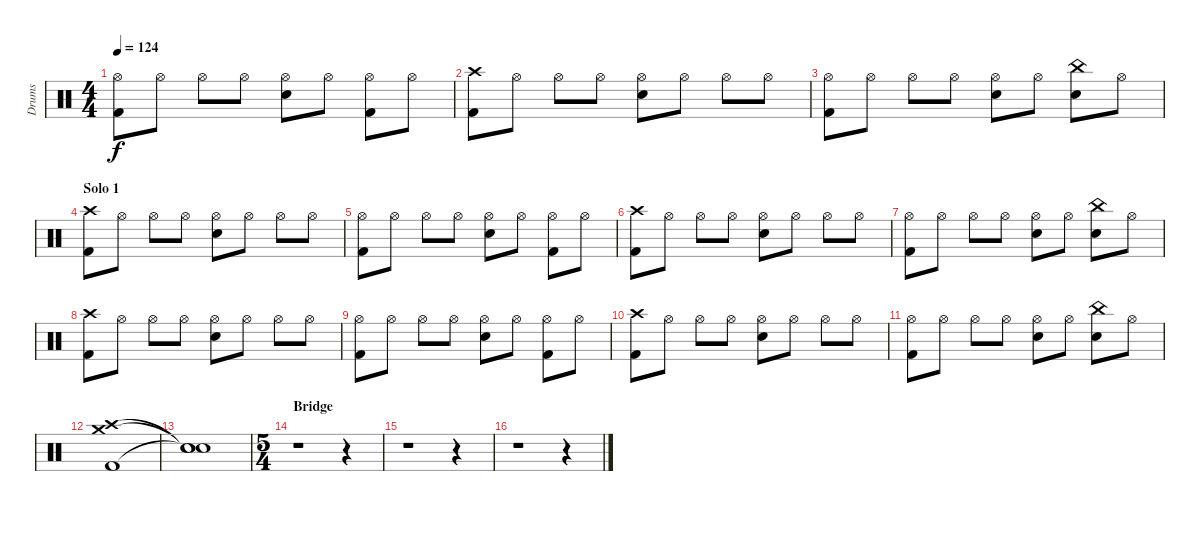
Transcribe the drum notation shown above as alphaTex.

\track ("Drums" "Drums") {instrument percussion}
\staff {score}
\articulation defaults
\ts (4 4)
\tempo 124
\clef neutral
\ks c
("Hi-Hat (open)" "Kick (hit) 2").8{dy f} "Hi-Hat (open)".8 "Hi-Hat (open)".8 "Hi-Hat (open)".8 ("Hi-Hat (open)" "Electric Snare (hit)").8 "Hi-Hat (open)".8 ("Hi-Hat (open)" "Kick (hit) 2").8 "Hi-Hat (open)".8 |
("Crash high (hit)" "Kick (hit) 2").8 "Hi-Hat (open)".8 "Hi-Hat (open)".8 "Hi-Hat (open)".8 ("Hi-Hat (open)" "Electric Snare (hit)").8 "Hi-Hat (open)".8 "Hi-Hat (open)".8 "Hi-Hat (open)".8 |
("Hi-Hat (open)" "Kick (hit) 2").8 "Hi-Hat (open)".8 "Hi-Hat (open)".8 "Hi-Hat (open)".8 ("Hi-Hat (open)" "Electric Snare (hit)").8 "Hi-Hat (open)".8 ("China (hit)" "Electric Snare (hit)").8 "Hi-Hat (open)".8 |
\section ("" "Solo 1")
("Crash high (hit)" "Kick (hit) 2").8 "Hi-Hat (open)".8 "Hi-Hat (open)".8 "Hi-Hat (open)".8 ("Hi-Hat (open)" "Electric Snare (hit)").8 "Hi-Hat (open)".8 "Hi-Hat (open)".8 "Hi-Hat (open)".8 |
("Hi-Hat (open)" "Kick (hit) 2").8 "Hi-Hat (open)".8 "Hi-Hat (open)".8 "Hi-Hat (open)".8 ("Hi-Hat (open)" "Electric Snare (hit)").8 "Hi-Hat (open)".8 ("Hi-Hat (open)" "Kick (hit) 2").8 "Hi-Hat (open)".8 |
("Crash high (hit)" "Kick (hit) 2").8 "Hi-Hat (open)".8 "Hi-Hat (open)".8 "Hi-Hat (open)".8 ("Hi-Hat (open)" "Electric Snare (hit)").8 "Hi-Hat (open)".8 "Hi-Hat (open)".8 "Hi-Hat (open)".8 |
("Hi-Hat (open)" "Kick (hit) 2").8 "Hi-Hat (open)".8 "Hi-Hat (open)".8 "Hi-Hat (open)".8 ("Hi-Hat (open)" "Electric Snare (hit)").8 "Hi-Hat (open)".8 ("China (hit)" "Electric Snare (hit)").8 "Hi-Hat (open)".8 |
("Crash high (hit)" "Kick (hit) 2").8 "Hi-Hat (open)".8 "Hi-Hat (open)".8 "Hi-Hat (open)".8 ("Hi-Hat (open)" "Electric Snare (hit)").8 "Hi-Hat (open)".8 "Hi-Hat (open)".8 "Hi-Hat (open)".8 |
("Hi-Hat (open)" "Kick (hit) 2").8 "Hi-Hat (open)".8 "Hi-Hat (open)".8 "Hi-Hat (open)".8 ("Hi-Hat (open)" "Electric Snare (hit)").8 "Hi-Hat (open)".8 ("Hi-Hat (open)" "Kick (hit) 2").8 "Hi-Hat (open)".8 |
("Crash high (hit)" "Kick (hit) 2").8 "Hi-Hat (open)".8 "Hi-Hat (open)".8 "Hi-Hat (open)".8 ("Hi-Hat (open)" "Electric Snare (hit)").8 "Hi-Hat (open)".8 "Hi-Hat (open)".8 "Hi-Hat (open)".8 |
("Hi-Hat (open)" "Kick (hit) 2").8 "Hi-Hat (open)".8 "Hi-Hat (open)".8 "Hi-Hat (open)".8 ("Hi-Hat (open)" "Electric Snare (hit)").8 "Hi-Hat (open)".8 ("China (hit)" "Electric Snare (hit)").8 "Hi-Hat (open)".8 |
("Crash high (hit)" "Crash medium (hit)" "Kick (hit) 2").1 |
("Snare (hit)"{t} "Snare (hit)"{t} "Snare (hit)"{t}).1 |
\ts (5 4)
\section ("" "Bridge")
r.1 r.4 |
r.1 r.4 |
r.1 r.4
